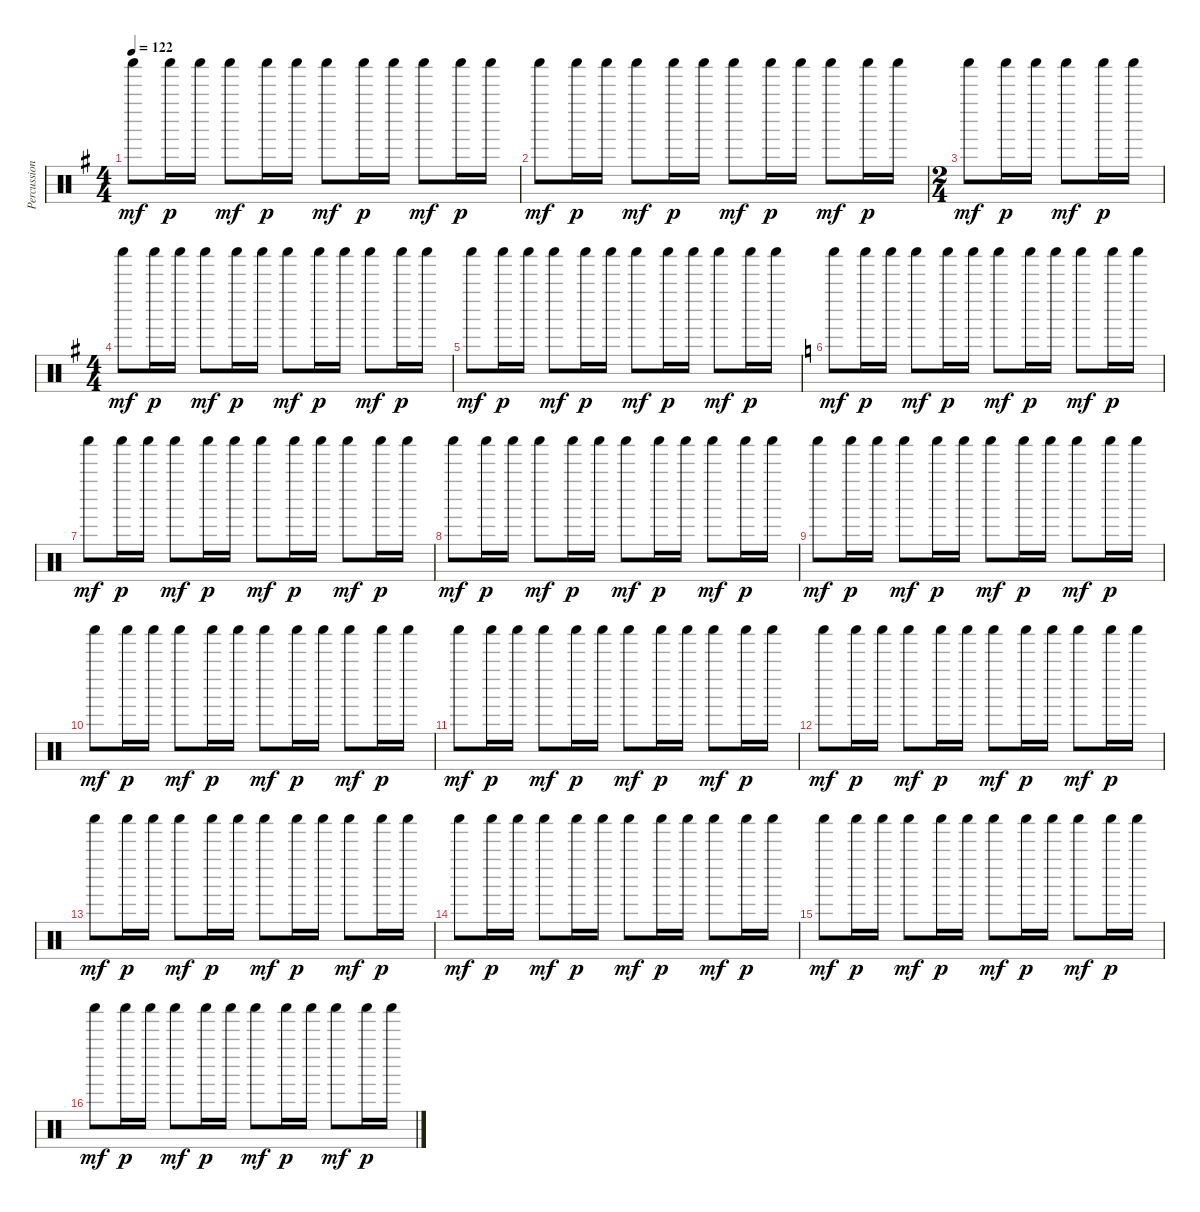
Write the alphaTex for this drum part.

\track ("Percussion" "Percussion") {instrument percussion}
\staff {score}
\articulation defaults
\ts (4 4)
\tempo 122
\clef neutral
\ks g "Shaker (hit)".8{dy mf} "Shaker (hit)".16{dy p} "Shaker (hit)".16 "Shaker (hit)".8{dy mf} "Shaker (hit)".16{dy p} "Shaker (hit)".16 "Shaker (hit)".8{dy mf} "Shaker (hit)".16{dy p} "Shaker (hit)".16 "Shaker (hit)".8{dy mf} "Shaker (hit)".16{dy p} "Shaker (hit)".16
|
"Shaker (hit)".8{dy mf} "Shaker (hit)".16{dy p} "Shaker (hit)".16 "Shaker (hit)".8{dy mf} "Shaker (hit)".16{dy p} "Shaker (hit)".16 "Shaker (hit)".8{dy mf} "Shaker (hit)".16{dy p} "Shaker (hit)".16 "Shaker (hit)".8{dy mf} "Shaker (hit)".16{dy p} "Shaker (hit)".16 |
\ts (2 4)
"Shaker (hit)".8{dy mf} "Shaker (hit)".16{dy p} "Shaker (hit)".16 "Shaker (hit)".8{dy mf} "Shaker (hit)".16{dy p} "Shaker (hit)".16 |
\ts (4 4)
"Shaker (hit)".8{dy mf} "Shaker (hit)".16{dy p} "Shaker (hit)".16 "Shaker (hit)".8{dy mf} "Shaker (hit)".16{dy p} "Shaker (hit)".16 "Shaker (hit)".8{dy mf} "Shaker (hit)".16{dy p} "Shaker (hit)".16 "Shaker (hit)".8{dy mf} "Shaker (hit)".16{dy p} "Shaker (hit)".16 |
"Shaker (hit)".8{dy mf} "Shaker (hit)".16{dy p} "Shaker (hit)".16 "Shaker (hit)".8{dy mf} "Shaker (hit)".16{dy p} "Shaker (hit)".16 "Shaker (hit)".8{dy mf} "Shaker (hit)".16{dy p} "Shaker (hit)".16 "Shaker (hit)".8{dy mf} "Shaker (hit)".16{dy p} "Shaker (hit)".16 |
\ks c "Shaker (hit)".8{dy mf} "Shaker (hit)".16{dy p} "Shaker (hit)".16 "Shaker (hit)".8{dy mf} "Shaker (hit)".16{dy p} "Shaker (hit)".16 "Shaker (hit)".8{dy mf} "Shaker (hit)".16{dy p} "Shaker (hit)".16 "Shaker (hit)".8{dy mf} "Shaker (hit)".16{dy p} "Shaker (hit)".16
|
"Shaker (hit)".8{dy mf} "Shaker (hit)".16{dy p} "Shaker (hit)".16 "Shaker (hit)".8{dy mf} "Shaker (hit)".16{dy p} "Shaker (hit)".16 "Shaker (hit)".8{dy mf} "Shaker (hit)".16{dy p} "Shaker (hit)".16 "Shaker (hit)".8{dy mf} "Shaker (hit)".16{dy p} "Shaker (hit)".16 |
"Shaker (hit)".8{dy mf} "Shaker (hit)".16{dy p} "Shaker (hit)".16 "Shaker (hit)".8{dy mf} "Shaker (hit)".16{dy p} "Shaker (hit)".16 "Shaker (hit)".8{dy mf} "Shaker (hit)".16{dy p} "Shaker (hit)".16 "Shaker (hit)".8{dy mf} "Shaker (hit)".16{dy p} "Shaker (hit)".16 |
"Shaker (hit)".8{dy mf} "Shaker (hit)".16{dy p} "Shaker (hit)".16 "Shaker (hit)".8{dy mf} "Shaker (hit)".16{dy p} "Shaker (hit)".16 "Shaker (hit)".8{dy mf} "Shaker (hit)".16{dy p} "Shaker (hit)".16 "Shaker (hit)".8{dy mf} "Shaker (hit)".16{dy p} "Shaker (hit)".16 |
"Shaker (hit)".8{dy mf} "Shaker (hit)".16{dy p} "Shaker (hit)".16 "Shaker (hit)".8{dy mf} "Shaker (hit)".16{dy p} "Shaker (hit)".16 "Shaker (hit)".8{dy mf} "Shaker (hit)".16{dy p} "Shaker (hit)".16 "Shaker (hit)".8{dy mf} "Shaker (hit)".16{dy p} "Shaker (hit)".16 |
"Shaker (hit)".8{dy mf} "Shaker (hit)".16{dy p} "Shaker (hit)".16 "Shaker (hit)".8{dy mf} "Shaker (hit)".16{dy p} "Shaker (hit)".16 "Shaker (hit)".8{dy mf} "Shaker (hit)".16{dy p} "Shaker (hit)".16 "Shaker (hit)".8{dy mf} "Shaker (hit)".16{dy p} "Shaker (hit)".16 |
"Shaker (hit)".8{dy mf} "Shaker (hit)".16{dy p} "Shaker (hit)".16 "Shaker (hit)".8{dy mf} "Shaker (hit)".16{dy p} "Shaker (hit)".16 "Shaker (hit)".8{dy mf} "Shaker (hit)".16{dy p} "Shaker (hit)".16 "Shaker (hit)".8{dy mf} "Shaker (hit)".16{dy p} "Shaker (hit)".16 |
"Shaker (hit)".8{dy mf} "Shaker (hit)".16{dy p} "Shaker (hit)".16 "Shaker (hit)".8{dy mf} "Shaker (hit)".16{dy p} "Shaker (hit)".16 "Shaker (hit)".8{dy mf} "Shaker (hit)".16{dy p} "Shaker (hit)".16 "Shaker (hit)".8{dy mf} "Shaker (hit)".16{dy p} "Shaker (hit)".16 |
"Shaker (hit)".8{dy mf} "Shaker (hit)".16{dy p} "Shaker (hit)".16 "Shaker (hit)".8{dy mf} "Shaker (hit)".16{dy p} "Shaker (hit)".16 "Shaker (hit)".8{dy mf} "Shaker (hit)".16{dy p} "Shaker (hit)".16 "Shaker (hit)".8{dy mf} "Shaker (hit)".16{dy p} "Shaker (hit)".16 |
"Shaker (hit)".8{dy mf} "Shaker (hit)".16{dy p} "Shaker (hit)".16 "Shaker (hit)".8{dy mf} "Shaker (hit)".16{dy p} "Shaker (hit)".16 "Shaker (hit)".8{dy mf} "Shaker (hit)".16{dy p} "Shaker (hit)".16 "Shaker (hit)".8{dy mf} "Shaker (hit)".16{dy p} "Shaker (hit)".16 |
"Shaker (hit)".8{dy mf} "Shaker (hit)".16{dy p} "Shaker (hit)".16 "Shaker (hit)".8{dy mf} "Shaker (hit)".16{dy p} "Shaker (hit)".16 "Shaker (hit)".8{dy mf} "Shaker (hit)".16{dy p} "Shaker (hit)".16 "Shaker (hit)".8{dy mf} "Shaker (hit)".16{dy p} "Shaker (hit)".16
